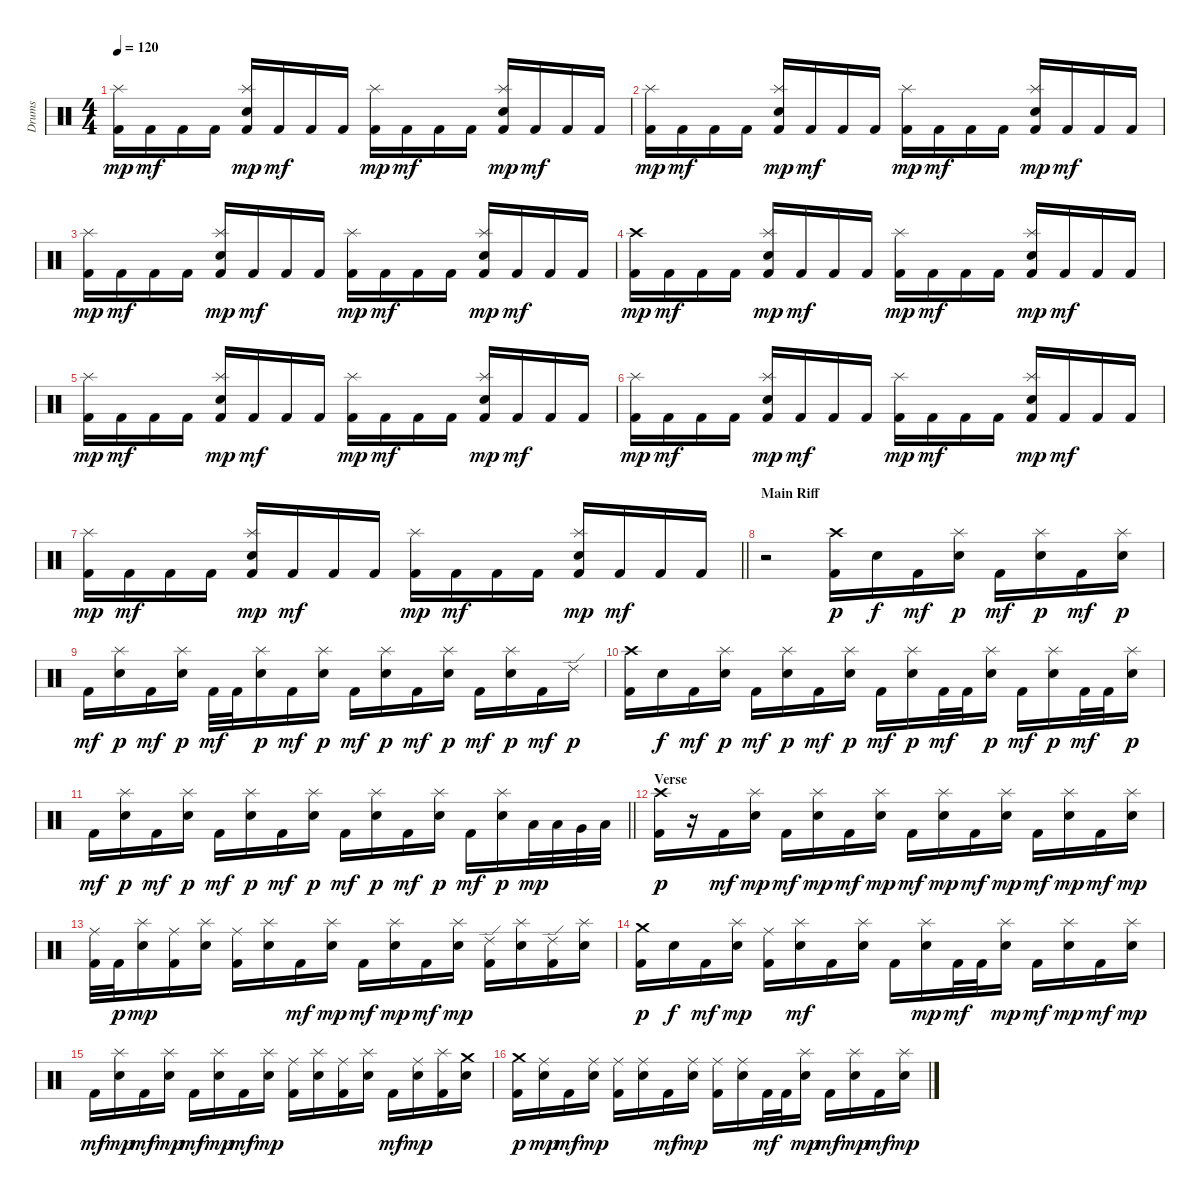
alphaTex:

\track ("Drums" "Drums") {instrument percussion}
\staff {score}
\articulation defaults
\ts (4 4)
\tempo 120
\clef neutral
\ks c
("Kick (hit) 2" "Splash (hit)").16{dy mp} "Kick (hit) 2".16{dy mf} "Kick (hit) 2".16 "Kick (hit) 2".16 ("Kick (hit) 2" "Splash (hit)" "Snare (hit) 2").16{dy mp} "Kick (hit) 2".16{dy mf} "Kick (hit) 2".16 "Kick (hit) 2".16 ("Kick (hit) 2" "Splash (hit)").16{dy mp} "Kick (hit) 2".16{dy mf} "Kick (hit) 2".16 "Kick (hit) 2".16 ("Kick (hit) 2" "Splash (hit)" "Snare (hit) 2").16{dy mp} "Kick (hit) 2".16{dy mf} "Kick (hit) 2".16 "Kick (hit) 2".16 |
("Kick (hit) 2" "Splash (hit)").16{dy mp} "Kick (hit) 2".16{dy mf} "Kick (hit) 2".16 "Kick (hit) 2".16 ("Kick (hit) 2" "Splash (hit)" "Snare (hit) 2").16{dy mp} "Kick (hit) 2".16{dy mf} "Kick (hit) 2".16 "Kick (hit) 2".16 ("Kick (hit) 2" "Splash (hit)").16{dy mp} "Kick (hit) 2".16{dy mf} "Kick (hit) 2".16 "Kick (hit) 2".16 ("Kick (hit) 2" "Splash (hit)" "Snare (hit) 2").16{dy mp} "Kick (hit) 2".16{dy mf} "Kick (hit) 2".16 "Kick (hit) 2".16 |
("Kick (hit) 2" "Splash (hit)").16{dy mp} "Kick (hit) 2".16{dy mf} "Kick (hit) 2".16 "Kick (hit) 2".16 ("Kick (hit) 2" "Splash (hit)" "Snare (hit) 2").16{dy mp} "Kick (hit) 2".16{dy mf} "Kick (hit) 2".16 "Kick (hit) 2".16 ("Kick (hit) 2" "Splash (hit)").16{dy mp} "Kick (hit) 2".16{dy mf} "Kick (hit) 2".16 "Kick (hit) 2".16 ("Kick (hit) 2" "Splash (hit)" "Snare (hit) 2").16{dy mp} "Kick (hit) 2".16{dy mf} "Kick (hit) 2".16 "Kick (hit) 2".16 |
("Kick (hit) 2" "Crash high (hit)").16{dy mp} "Kick (hit) 2".16{dy mf} "Kick (hit) 2".16 "Kick (hit) 2".16 ("Kick (hit) 2" "Splash (hit)" "Snare (hit) 2").16{dy mp} "Kick (hit) 2".16{dy mf} "Kick (hit) 2".16 "Kick (hit) 2".16 ("Kick (hit) 2" "Splash (hit)").16{dy mp} "Kick (hit) 2".16{dy mf} "Kick (hit) 2".16 "Kick (hit) 2".16 ("Kick (hit) 2" "Splash (hit)" "Snare (hit) 2").16{dy mp} "Kick (hit) 2".16{dy mf} "Kick (hit) 2".16 "Kick (hit) 2".16 |
("Kick (hit) 2" "Splash (hit)").16{dy mp} "Kick (hit) 2".16{dy mf} "Kick (hit) 2".16 "Kick (hit) 2".16 ("Kick (hit) 2" "Splash (hit)" "Snare (hit) 2").16{dy mp} "Kick (hit) 2".16{dy mf} "Kick (hit) 2".16 "Kick (hit) 2".16 ("Kick (hit) 2" "Splash (hit)").16{dy mp} "Kick (hit) 2".16{dy mf} "Kick (hit) 2".16 "Kick (hit) 2".16 ("Kick (hit) 2" "Splash (hit)" "Snare (hit) 2").16{dy mp} "Kick (hit) 2".16{dy mf} "Kick (hit) 2".16 "Kick (hit) 2".16 |
("Kick (hit) 2" "Splash (hit)").16{dy mp} "Kick (hit) 2".16{dy mf} "Kick (hit) 2".16 "Kick (hit) 2".16 ("Kick (hit) 2" "Splash (hit)" "Snare (hit) 2").16{dy mp} "Kick (hit) 2".16{dy mf} "Kick (hit) 2".16 "Kick (hit) 2".16 ("Kick (hit) 2" "Splash (hit)").16{dy mp} "Kick (hit) 2".16{dy mf} "Kick (hit) 2".16 "Kick (hit) 2".16 ("Kick (hit) 2" "Splash (hit)" "Snare (hit) 2").16{dy mp} "Kick (hit) 2".16{dy mf} "Kick (hit) 2".16 "Kick (hit) 2".16 |
\barLineRight lightlight
("Kick (hit) 2" "Splash (hit)").16{dy mp} "Kick (hit) 2".16{dy mf} "Kick (hit) 2".16 "Kick (hit) 2".16 ("Kick (hit) 2" "Splash (hit)" "Snare (hit) 2").16{dy mp} "Kick (hit) 2".16{dy mf} "Kick (hit) 2".16 "Kick (hit) 2".16 ("Kick (hit) 2" "Splash (hit)").16{dy mp} "Kick (hit) 2".16{dy mf} "Kick (hit) 2".16 "Kick (hit) 2".16 ("Kick (hit) 2" "Splash (hit)" "Snare (hit) 2").16{dy mp} "Kick (hit) 2".16{dy mf} "Kick (hit) 2".16 "Kick (hit) 2".16 |
\section ("" "Main Riff")
r.2 ("Kick (hit) 2" "Crash high (hit)").16{dy p} "Snare (hit) 2".16{dy f} "Kick (hit) 2".16{dy mf} ("Splash (hit)" "Snare (hit) 2").16{dy p} "Kick (hit) 2".16{dy mf} ("Splash (hit)" "Snare (hit) 2").16{dy p} "Kick (hit) 2".16{dy mf} ("Splash (hit)" "Snare (hit) 2").16{dy p} |
"Kick (hit) 2".16{dy mf} ("Splash (hit)" "Snare (hit) 2").16{dy p} "Kick (hit) 2".16{dy mf} ("Splash (hit)" "Snare (hit) 2").16{dy p} "Kick (hit) 2".32{dy mf} "Kick (hit) 2".32 ("Splash (hit)" "Snare (hit) 2").16{dy p} "Kick (hit) 2".16{dy mf} ("Splash (hit)" "Snare (hit) 2").16{dy p} "Kick (hit) 2".16{dy mf} ("Splash (hit)" "Snare (hit) 2").16{dy p} "Kick (hit) 2".16{dy mf} ("Splash (hit)" "Snare (hit) 2").16{dy p} "Kick (hit) 2".16{dy mf} ("Splash (hit)" "Snare (hit) 2").16{dy p} "Kick (hit) 2".16{dy mf} "Ride (edge) 2".16{dy p} |
("Kick (hit) 2" "Crash high (hit)").16 "Snare (hit) 2".16{dy f} "Kick (hit) 2".16{dy mf} ("Splash (hit)" "Snare (hit) 2").16{dy p} "Kick (hit) 2".16{dy mf} ("Splash (hit)" "Snare (hit) 2").16{dy p} "Kick (hit) 2".16{dy mf} ("Splash (hit)" "Snare (hit) 2").16{dy p} "Kick (hit) 2".16{dy mf} ("Splash (hit)" "Snare (hit) 2").16{dy p} "Kick (hit) 2".32{dy mf} "Kick (hit) 2".32 ("Splash (hit)" "Snare (hit) 2").16{dy p} "Kick (hit) 2".16{dy mf} ("Splash (hit)" "Snare (hit) 2").16{dy p} "Kick (hit) 2".32{dy mf} "Kick (hit) 2".32 ("Splash (hit)" "Snare (hit) 2").16{dy p} |
\barLineRight lightlight "Kick (hit) 2".16{dy mf}
("Splash (hit)" "Snare (hit) 2").16{dy p} "Kick (hit) 2".16{dy mf} ("Splash (hit)" "Snare (hit) 2").16{dy p} "Kick (hit) 2".16{dy mf} ("Splash (hit)" "Snare (hit) 2").16{dy p} "Kick (hit) 2".16{dy mf} ("Splash (hit)" "Snare (hit) 2").16{dy p} "Kick (hit) 2".16{dy mf} ("Splash (hit)" "Snare (hit) 2").16{dy p} "Kick (hit) 2".16{dy mf} ("Splash (hit)" "Snare (hit) 2").16{dy p} "Kick (hit) 2".16{dy mf} ("Splash (hit)" "Snare (hit) 2").16{dy p} "Low Tom (hit)".32{dy mp} "Low Tom (hit)".32 "Very Low Tom (hit)".32 "Low Floor Tom (hit)".32 |
\section ("" "Verse")
("Kick (hit) 2" "Crash high (hit)").16{dy p} r.16 "Kick (hit) 2".16{dy mf} ("Splash (hit)" "Snare (hit) 2").16{dy mp} "Kick (hit) 2".16{dy mf} ("Splash (hit)" "Snare (hit) 2").16{dy mp} "Kick (hit) 2".16{dy mf} ("Splash (hit)" "Snare (hit) 2").16{dy mp} "Kick (hit) 2".16{dy mf} ("Splash (hit)" "Snare (hit) 2").16{dy mp} "Kick (hit) 2".16{dy mf} ("Splash (hit)" "Snare (hit) 2").16{dy mp} "Kick (hit) 2".16{dy mf} ("Splash (hit)" "Snare (hit) 2").16{dy mp} "Kick (hit) 2".16{dy mf} ("Splash (hit)" "Snare (hit) 2").16{dy mp} |
("Kick (hit) 2" "Ride (middle)").32 "Kick (hit) 2".32{dy p} ("Splash (hit)" "Snare (hit) 2").16{dy mp} ("Kick (hit) 2" "Ride (middle)").16 ("Splash (hit)" "Snare (hit) 2").16 ("Kick (hit) 2" "Ride (middle)").16 ("Splash (hit)" "Snare (hit) 2").16 "Kick (hit) 2".16{dy mf} ("Splash (hit)" "Snare (hit) 2").16{dy mp} "Kick (hit) 2".16{dy mf} ("Splash (hit)" "Snare (hit) 2").16{dy mp} "Kick (hit) 2".16{dy mf} ("Splash (hit)" "Snare (hit) 2").16{dy mp} ("Kick (hit) 2" "Ride (edge) 2").16 ("Splash (hit)" "Snare (hit) 2").16 ("Kick (hit) 2" "Ride (edge) 2").16 ("Splash (hit)" "Snare (hit) 2").16 |
("Kick (hit) 2" "Crash medium (hit)").16{dy p} "Snare (hit) 2".16{dy f} "Kick (hit) 2".16{dy mf} ("Splash (hit)" "Snare (hit) 2").16{dy mp} ("Kick (hit) 2" "Ride (middle)").16 ("Splash (hit)" "Snare (hit) 2").16{dy mf} "Kick (hit) 2".16 ("Splash (hit)" "Snare (hit) 2").16 "Kick (hit) 2".16 ("Splash (hit)" "Snare (hit) 2").16{dy mp} "Kick (hit) 2".32{dy mf} "Kick (hit) 2".32 ("Splash (hit)" "Snare (hit) 2").16{dy mp} "Kick (hit) 2".16{dy mf} ("Splash (hit)" "Snare (hit) 2").16{dy mp} "Kick (hit) 2".16{dy mf} ("Splash (hit)" "Snare (hit) 2").16{dy mp} |
"Kick (hit) 2".16{dy mf} ("Splash (hit)" "Snare (hit) 2").16{dy mp} "Kick (hit) 2".16{dy mf} ("Splash (hit)" "Snare (hit) 2").16{dy mp} "Kick (hit) 2".16{dy mf} ("Splash (hit)" "Snare (hit) 2").16{dy mp} "Kick (hit) 2".16{dy mf} ("Splash (hit)" "Snare (hit) 2").16{dy mp} ("Kick (hit) 2" "Ride (middle)").16 ("Splash (hit)" "Snare (hit) 2").16 ("Kick (hit) 2" "Ride (middle)").16 ("Splash (hit)" "Snare (hit) 2").16 "Kick (hit) 2".16{dy mf} ("Ride (middle)" "Snare (hit) 2").16{dy mp} ("Kick (hit) 2" "Splash (hit)").16 ("Crash medium (hit)" "Snare (hit) 2").16 |
("Kick (hit) 2" "Crash medium (hit)").16{dy p} ("Ride (middle)" "Snare (hit) 2").16{dy mp} "Kick (hit) 2".16{dy mf} ("Ride (middle)" "Snare (hit) 2").16{dy mp} ("Kick (hit) 2" "Ride (middle)").16 ("Ride (middle)" "Snare (hit) 2").16 "Kick (hit) 2".16{dy mf} ("Ride (middle)" "Snare (hit) 2").16{dy mp} ("Kick (hit) 2" "Ride (middle)").16 ("Ride (middle)" "Snare (hit) 2").16 "Kick (hit) 2".32{dy mf} "Kick (hit) 2".32 ("Splash (hit)" "Snare (hit) 2").16{dy mp} "Kick (hit) 2".16{dy mf} ("Splash (hit)" "Snare (hit) 2").16{dy mp} "Kick (hit) 2".16{dy mf} ("Splash (hit)" "Snare (hit) 2").16{dy mp}
